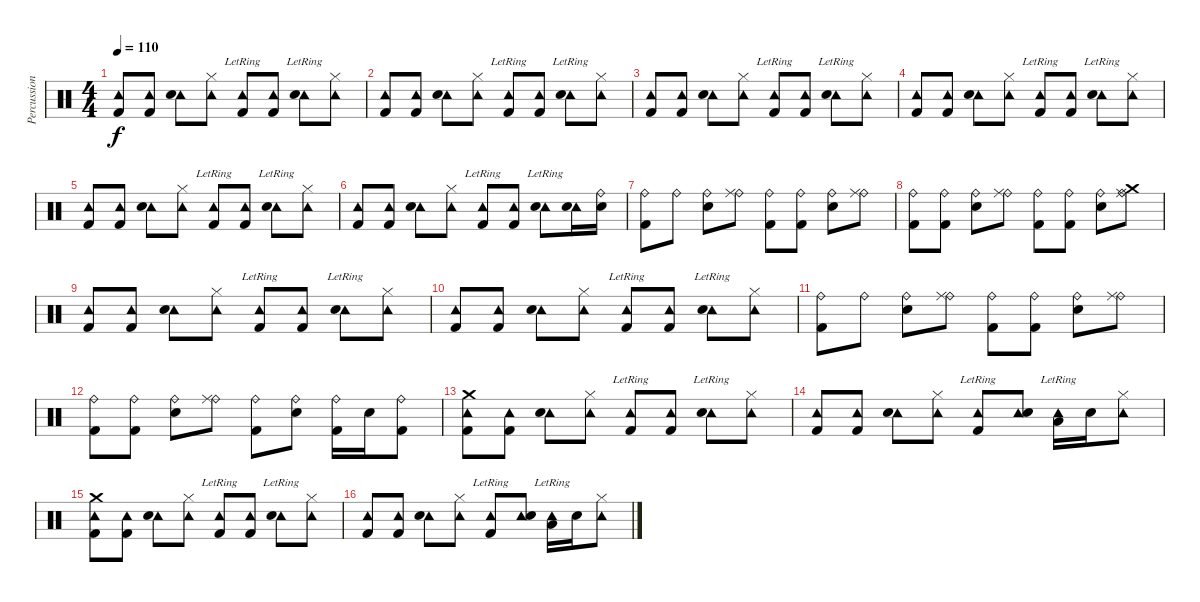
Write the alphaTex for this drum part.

\track ("Percussion" "Percussion") {instrument percussion}
\staff {score}
\articulation defaults
\ts (4 4)
\tempo 110
\clef neutral
\ks c
("Tambourine (hit)" "Kick (hit) 2").8{dy f} ("Tambourine (hit)" "Kick (hit) 2").8 ("Tambourine (hit)" "Electric Snare (hit)").8 ("Tambourine (hit)" "Hi-Hat (closed)").8 ("Tambourine (hit)"{lr} "Kick (hit) 2").8 ("Tambourine (hit)" "Kick (hit) 2").8 ("Tambourine (hit)"{lr} "Electric Snare (hit)").8 ("Tambourine (hit)" "Hi-Hat (closed)").8 |
("Tambourine (hit)" "Kick (hit) 2").8 ("Tambourine (hit)" "Kick (hit) 2").8 ("Tambourine (hit)" "Electric Snare (hit)").8 ("Tambourine (hit)" "Hi-Hat (closed)").8 ("Tambourine (hit)"{lr} "Kick (hit) 2").8 ("Tambourine (hit)" "Kick (hit) 2").8 ("Tambourine (hit)"{lr} "Electric Snare (hit)").8 ("Tambourine (hit)" "Hi-Hat (closed)").8 |
("Tambourine (hit)" "Kick (hit) 2").8 ("Tambourine (hit)" "Kick (hit) 2").8 ("Tambourine (hit)" "Electric Snare (hit)").8 ("Tambourine (hit)" "Hi-Hat (closed)").8 ("Tambourine (hit)"{lr} "Kick (hit) 2").8 ("Tambourine (hit)" "Kick (hit) 2").8 ("Tambourine (hit)"{lr} "Electric Snare (hit)").8 ("Tambourine (hit)" "Hi-Hat (closed)").8 |
("Tambourine (hit)" "Kick (hit) 2").8 ("Tambourine (hit)" "Kick (hit) 2").8 ("Tambourine (hit)" "Electric Snare (hit)").8 ("Tambourine (hit)" "Hi-Hat (closed)").8 ("Tambourine (hit)"{lr} "Kick (hit) 2").8 ("Tambourine (hit)" "Kick (hit) 2").8 ("Tambourine (hit)"{lr} "Electric Snare (hit)").8 ("Tambourine (hit)" "Hi-Hat (closed)").8 |
("Tambourine (hit)" "Kick (hit) 2").8 ("Tambourine (hit)" "Kick (hit) 2").8 ("Tambourine (hit)" "Electric Snare (hit)").8 ("Tambourine (hit)" "Hi-Hat (closed)").8 ("Tambourine (hit)"{lr} "Kick (hit) 2").8 ("Tambourine (hit)" "Kick (hit) 2").8 ("Tambourine (hit)"{lr} "Electric Snare (hit)").8 ("Tambourine (hit)" "Hi-Hat (closed)").8 |
("Tambourine (hit)" "Kick (hit) 2").8 ("Tambourine (hit)" "Kick (hit) 2").8 ("Tambourine (hit)" "Electric Snare (hit)").8 ("Tambourine (hit)" "Hi-Hat (closed)").8 ("Tambourine (hit)"{lr} "Kick (hit) 2").8 ("Tambourine (hit)" "Kick (hit) 2").8 ("Tambourine (hit)"{lr} "Electric Snare (hit)").8 ("Tambourine (hit)" "Electric Snare (hit)").16 ("Ride (bell)" "Electric Snare (hit)").16 |
("Ride (bell)" "Kick (hit) 2").8 "Ride (bell)".8 ("Ride (bell)" "Electric Snare (hit)").8 ("Ride (bell)" "Ride (middle)").8 ("Ride (bell)" "Kick (hit) 2").8 ("Ride (bell)" "Kick (hit) 2").8 ("Ride (bell)" "Electric Snare (hit)").8 ("Ride (bell)" "Ride (middle)").8 |
("Ride (bell)" "Kick (hit) 2").8 ("Ride (bell)" "Kick (hit) 2").8 ("Ride (bell)" "Electric Snare (hit)").8 ("Ride (bell)" "Ride (middle)").8 ("Ride (bell)" "Kick (hit) 2").8 ("Ride (bell)" "Kick (hit) 2").8 ("Ride (bell)" "Electric Snare (hit)").8 ("Ride (bell)" "Ride (middle)" "Crash medium (hit)").8 |
("Tambourine (hit)" "Kick (hit) 2").8 ("Tambourine (hit)" "Kick (hit) 2").8 ("Tambourine (hit)" "Electric Snare (hit)").8 ("Tambourine (hit)" "Hi-Hat (closed)").8 ("Tambourine (hit)"{lr} "Kick (hit) 2").8 ("Tambourine (hit)" "Kick (hit) 2").8 ("Tambourine (hit)"{lr} "Electric Snare (hit)").8 ("Tambourine (hit)" "Hi-Hat (closed)").8 |
("Tambourine (hit)" "Kick (hit) 2").8 ("Tambourine (hit)" "Kick (hit) 2").8 ("Tambourine (hit)" "Electric Snare (hit)").8 ("Tambourine (hit)" "Hi-Hat (closed)").8 ("Tambourine (hit)"{lr} "Kick (hit) 2").8 ("Tambourine (hit)" "Kick (hit) 2").8 ("Tambourine (hit)"{lr} "Electric Snare (hit)").8 ("Tambourine (hit)" "Hi-Hat (closed)").8 |
("Ride (bell)" "Kick (hit) 2").8 "Ride (bell)".8 ("Ride (bell)" "Electric Snare (hit)").8 ("Ride (bell)" "Ride (middle)").8 ("Ride (bell)" "Kick (hit) 2").8 ("Ride (bell)" "Kick (hit) 2").8 ("Ride (bell)" "Electric Snare (hit)").8 ("Ride (bell)" "Ride (middle)").8 |
("Ride (bell)" "Kick (hit) 2").8 ("Ride (bell)" "Kick (hit) 2").8 ("Ride (bell)" "Electric Snare (hit)").8 ("Ride (bell)" "Ride (middle)").8 ("Ride (bell)" "Kick (hit) 2").8 ("Ride (bell)" "Electric Snare (hit)").8 ("Ride (bell)" "Kick (hit) 2").16 "Electric Snare (hit)".16 ("Ride (bell)" "Kick (hit) 2").8 |
("Tambourine (hit)" "Crash medium (hit)" "Kick (hit) 2").8 ("Tambourine (hit)" "Kick (hit) 2").8 ("Tambourine (hit)" "Electric Snare (hit)").8 ("Tambourine (hit)" "Hi-Hat (closed)").8 ("Tambourine (hit)"{lr} "Kick (hit) 2").8 ("Tambourine (hit)" "Kick (hit) 2").8 ("Tambourine (hit)"{lr} "Electric Snare (hit)").8 ("Tambourine (hit)" "Hi-Hat (closed)").8 |
("Tambourine (hit)" "Kick (hit) 2").8 ("Tambourine (hit)" "Kick (hit) 2").8 ("Tambourine (hit)" "Electric Snare (hit)").8 ("Tambourine (hit)" "Hi-Hat (closed)").8 ("Tambourine (hit)"{lr} "Kick (hit) 2").8 ("Tambourine (hit)" "Electric Snare (hit)").8 ("Tambourine (hit)"{lr} "Low Tom (hit)").16 "Electric Snare (hit)".16 ("Tambourine (hit)" "Hi-Hat (closed)").8 |
("Tambourine (hit)" "Crash medium (hit)" "Kick (hit) 2").8 ("Tambourine (hit)" "Kick (hit) 2").8 ("Tambourine (hit)" "Electric Snare (hit)").8 ("Tambourine (hit)" "Hi-Hat (closed)").8 ("Tambourine (hit)"{lr} "Kick (hit) 2").8 ("Tambourine (hit)" "Kick (hit) 2").8 ("Tambourine (hit)"{lr} "Electric Snare (hit)").8 ("Tambourine (hit)" "Hi-Hat (closed)").8 |
("Tambourine (hit)" "Kick (hit) 2").8 ("Tambourine (hit)" "Kick (hit) 2").8 ("Tambourine (hit)" "Electric Snare (hit)").8 ("Tambourine (hit)" "Hi-Hat (closed)").8 ("Tambourine (hit)"{lr} "Kick (hit) 2").8 ("Tambourine (hit)" "Electric Snare (hit)").8 ("Tambourine (hit)"{lr} "Low Tom (hit)").16 "Electric Snare (hit)".16 ("Tambourine (hit)" "Hi-Hat (closed)").8
